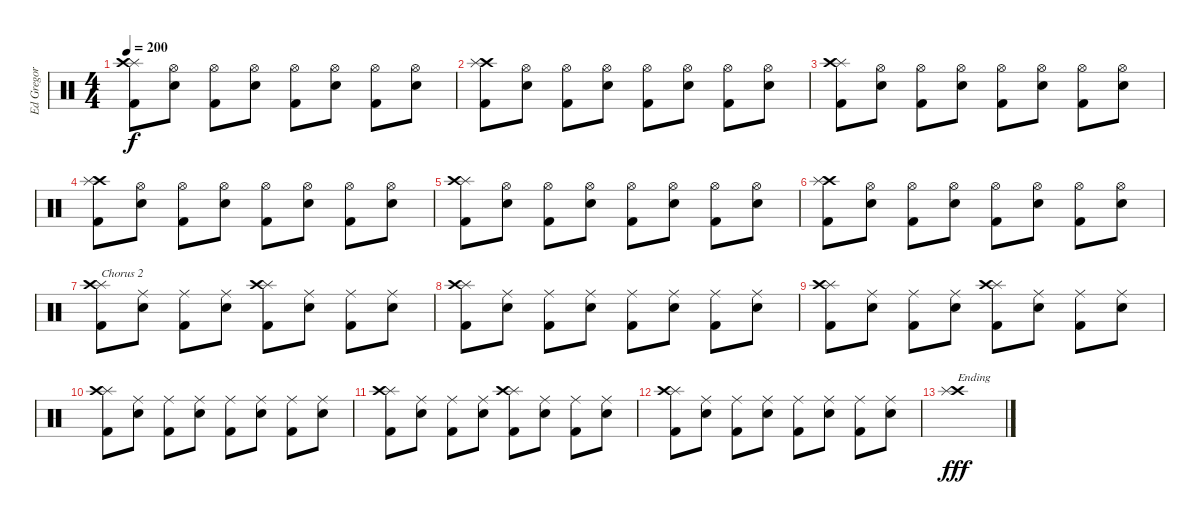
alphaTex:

\track ("Ed Gregor" "Ed Gregor") {instrument percussion}
\staff {score}
\articulation defaults
\ts (4 4)
\tempo 200
\clef neutral
\ks c
("Splash (hit)" "Crash high (hit)" "Kick (hit) 2").8{dy f} ("Hi-Hat (open)" "Snare (hit) 2").8 ("Hi-Hat (open)" "Kick (hit) 2").8 ("Hi-Hat (open)" "Snare (hit) 2").8 ("Hi-Hat (open)" "Kick (hit) 2").8 ("Hi-Hat (open)" "Snare (hit) 2").8 ("Hi-Hat (open)" "Kick (hit) 2").8 ("Hi-Hat (open)" "Snare (hit) 2").8 |
("Crash high (hit)" "Splash (hit)" "Kick (hit) 2").8 ("Hi-Hat (open)" "Snare (hit) 2").8 ("Hi-Hat (open)" "Kick (hit) 2").8 ("Hi-Hat (open)" "Snare (hit) 2").8 ("Hi-Hat (open)" "Kick (hit) 2").8 ("Hi-Hat (open)" "Snare (hit) 2").8 ("Hi-Hat (open)" "Kick (hit) 2").8 ("Hi-Hat (open)" "Snare (hit) 2").8 |
("Splash (hit)" "Crash high (hit)" "Kick (hit) 2").8 ("Hi-Hat (open)" "Snare (hit) 2").8 ("Hi-Hat (open)" "Kick (hit) 2").8 ("Hi-Hat (open)" "Snare (hit) 2").8 ("Hi-Hat (open)" "Kick (hit) 2").8 ("Hi-Hat (open)" "Snare (hit) 2").8 ("Hi-Hat (open)" "Kick (hit) 2").8 ("Hi-Hat (open)" "Snare (hit) 2").8 |
("Crash high (hit)" "Splash (hit)" "Kick (hit) 2").8 ("Hi-Hat (open)" "Snare (hit) 2").8 ("Hi-Hat (open)" "Kick (hit) 2").8 ("Hi-Hat (open)" "Snare (hit) 2").8 ("Hi-Hat (open)" "Kick (hit) 2").8 ("Hi-Hat (open)" "Snare (hit) 2").8 ("Hi-Hat (open)" "Kick (hit) 2").8 ("Hi-Hat (open)" "Snare (hit) 2").8 |
("Splash (hit)" "Crash high (hit)" "Kick (hit) 2").8 ("Hi-Hat (open)" "Snare (hit) 2").8 ("Hi-Hat (open)" "Kick (hit) 2").8 ("Hi-Hat (open)" "Snare (hit) 2").8 ("Hi-Hat (open)" "Kick (hit) 2").8 ("Hi-Hat (open)" "Snare (hit) 2").8 ("Hi-Hat (open)" "Kick (hit) 2").8 ("Hi-Hat (open)" "Snare (hit) 2").8 |
("Crash high (hit)" "Splash (hit)" "Kick (hit) 2").8 ("Hi-Hat (open)" "Snare (hit) 2").8 ("Hi-Hat (open)" "Kick (hit) 2").8 ("Hi-Hat (open)" "Snare (hit) 2").8 ("Hi-Hat (open)" "Kick (hit) 2").8 ("Hi-Hat (open)" "Snare (hit) 2").8 ("Hi-Hat (open)" "Kick (hit) 2").8 ("Hi-Hat (open)" "Snare (hit) 2").8 |
("Splash (hit)" "Crash high (hit)" "Kick (hit) 2").8{txt "Chorus 2"} ("Ride (middle)" "Snare (hit) 2").8 ("Ride (middle)" "Kick (hit) 2").8 ("Ride (middle)" "Snare (hit) 2").8 ("Splash (hit)" "Crash high (hit)" "Kick (hit) 2").8 ("Ride (middle)" "Snare (hit) 2").8 ("Ride (middle)" "Kick (hit) 2").8 ("Ride (middle)" "Snare (hit) 2").8 |
("Splash (hit)" "Crash high (hit)" "Kick (hit) 2").8 ("Ride (middle)" "Snare (hit) 2").8 ("Ride (middle)" "Kick (hit) 2").8 ("Ride (middle)" "Snare (hit) 2").8 ("Ride (middle)" "Kick (hit) 2").8 ("Ride (middle)" "Snare (hit) 2").8 ("Ride (middle)" "Kick (hit) 2").8 ("Ride (middle)" "Snare (hit) 2").8 |
("Splash (hit)" "Crash high (hit)" "Kick (hit) 2").8 ("Ride (middle)" "Snare (hit) 2").8 ("Ride (middle)" "Kick (hit) 2").8 ("Ride (middle)" "Snare (hit) 2").8 ("Splash (hit)" "Crash high (hit)" "Kick (hit) 2").8 ("Ride (middle)" "Snare (hit) 2").8 ("Ride (middle)" "Kick (hit) 2").8 ("Ride (middle)" "Snare (hit) 2").8 |
("Splash (hit)" "Crash high (hit)" "Kick (hit) 2").8 ("Ride (middle)" "Snare (hit) 2").8 ("Ride (middle)" "Kick (hit) 2").8 ("Ride (middle)" "Snare (hit) 2").8 ("Ride (middle)" "Kick (hit) 2").8 ("Ride (middle)" "Snare (hit) 2").8 ("Ride (middle)" "Kick (hit) 2").8 ("Ride (middle)" "Snare (hit) 2").8 |
("Splash (hit)" "Crash high (hit)" "Kick (hit) 2").8 ("Ride (middle)" "Snare (hit) 2").8 ("Ride (middle)" "Kick (hit) 2").8 ("Ride (middle)" "Snare (hit) 2").8 ("Splash (hit)" "Crash high (hit)" "Kick (hit) 2").8 ("Ride (middle)" "Snare (hit) 2").8 ("Ride (middle)" "Kick (hit) 2").8 ("Ride (middle)" "Snare (hit) 2").8 |
("Splash (hit)" "Crash high (hit)" "Kick (hit) 2").8 ("Ride (middle)" "Snare (hit) 2").8 ("Ride (middle)" "Kick (hit) 2").8 ("Ride (middle)" "Snare (hit) 2").8 ("Ride (middle)" "Kick (hit) 2").8 ("Ride (middle)" "Snare (hit) 2").8 ("Ride (middle)" "Kick (hit) 2").8 ("Ride (middle)" "Snare (hit) 2").8 |
("Crash high (hit)" "Splash (hit)").1{txt "Ending" dy fff}
